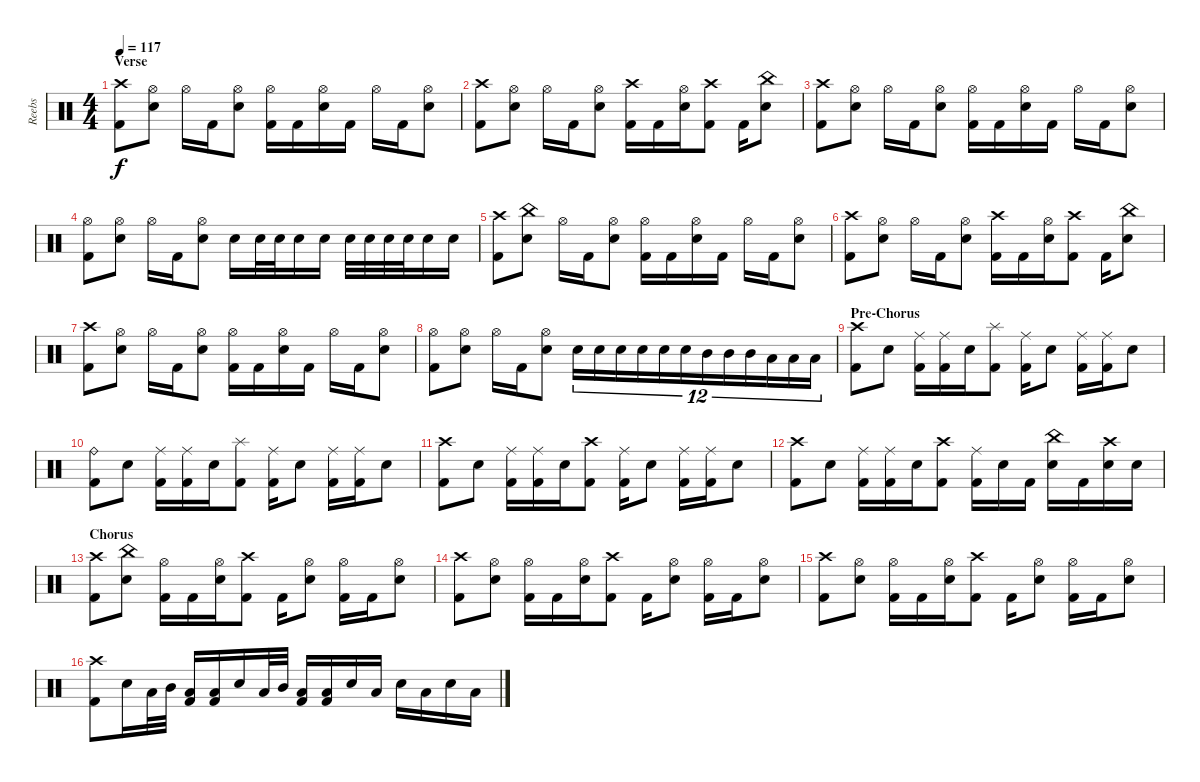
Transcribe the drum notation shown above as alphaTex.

\track ("Reebs" "Reebs") {instrument percussion}
\staff {score}
\articulation defaults
\ts (4 4)
\section ("" "Verse")
\tempo 117
\clef neutral
\ks c
("Crash high (hit)" "Kick (hit) 2").8{dy f} ("Hi-Hat (open)" "Electric Snare (hit)").8 "Hi-Hat (open)".16 "Kick (hit) 2".16 ("Hi-Hat (open)" "Electric Snare (hit)").8 ("Hi-Hat (open)" "Kick (hit) 2").16 "Kick (hit) 2".16 ("Hi-Hat (open)" "Electric Snare (hit)").16 "Kick (hit) 2".16 "Hi-Hat (open)".16 "Kick (hit) 2".16 ("Hi-Hat (open)" "Electric Snare (hit)").8 |
("Crash high (hit)" "Kick (hit) 2").8 ("Hi-Hat (open)" "Electric Snare (hit)").8 "Hi-Hat (open)".16 "Kick (hit) 2".16 ("Hi-Hat (open)" "Electric Snare (hit)").8 ("Crash high (hit)" "Kick (hit) 2").16 "Kick (hit) 2".16 ("Hi-Hat (open)" "Electric Snare (hit)").16 ("Crash high (hit)" "Kick (hit) 2").8 "Kick (hit) 2".16 ("China (hit)" "Electric Snare (hit)").8 |
("Crash high (hit)" "Kick (hit) 2").8 ("Hi-Hat (open)" "Electric Snare (hit)").8 "Hi-Hat (open)".16 "Kick (hit) 2".16 ("Hi-Hat (open)" "Electric Snare (hit)").8 ("Hi-Hat (open)" "Kick (hit) 2").16 "Kick (hit) 2".16 ("Hi-Hat (open)" "Electric Snare (hit)").16 "Kick (hit) 2".16 "Hi-Hat (open)".16 "Kick (hit) 2".16 ("Hi-Hat (open)" "Electric Snare (hit)").8 |
("Hi-Hat (open)" "Kick (hit) 2").8 ("Hi-Hat (open)" "Electric Snare (hit)").8 "Hi-Hat (open)".16 "Kick (hit) 2".16 ("Hi-Hat (open)" "Electric Snare (hit)").8 "Electric Snare (hit)".16 "Electric Snare (hit)".32 "Electric Snare (hit)".32 "Electric Snare (hit)".16 "Electric Snare (hit)".16 "Electric Snare (hit)".32 "Electric Snare (hit)".32 "Electric Snare (hit)".32 "Electric Snare (hit)".32 "Electric Snare (hit)".16 "Electric Snare (hit)".16 |
("Crash high (hit)" "Kick (hit) 2").8 ("China (hit)" "Electric Snare (hit)").8 "Hi-Hat (open)".16 "Kick (hit) 2".16 ("Hi-Hat (open)" "Electric Snare (hit)").8 ("Hi-Hat (open)" "Kick (hit) 2").16 "Kick (hit) 2".16 ("Hi-Hat (open)" "Electric Snare (hit)").16 "Kick (hit) 2".16 "Hi-Hat (open)".16 "Kick (hit) 2".16 ("Hi-Hat (open)" "Electric Snare (hit)").8 |
("Crash high (hit)" "Kick (hit) 2").8 ("Hi-Hat (open)" "Electric Snare (hit)").8 "Hi-Hat (open)".16 "Kick (hit) 2".16 ("Hi-Hat (open)" "Electric Snare (hit)").8 ("Crash high (hit)" "Kick (hit) 2").16 "Kick (hit) 2".16 ("Hi-Hat (open)" "Electric Snare (hit)").16 ("Crash high (hit)" "Kick (hit) 2").8 "Kick (hit) 2".16 ("China (hit)" "Electric Snare (hit)").8 |
("Crash high (hit)" "Kick (hit) 2").8 ("Hi-Hat (open)" "Electric Snare (hit)").8 "Hi-Hat (open)".16 "Kick (hit) 2".16 ("Hi-Hat (open)" "Electric Snare (hit)").8 ("Hi-Hat (open)" "Kick (hit) 2").16 "Kick (hit) 2".16 ("Hi-Hat (open)" "Electric Snare (hit)").16 "Kick (hit) 2".16 "Hi-Hat (open)".16 "Kick (hit) 2".16 ("Hi-Hat (open)" "Electric Snare (hit)").8 |
("Hi-Hat (open)" "Kick (hit) 2").8 ("Hi-Hat (open)" "Electric Snare (hit)").8 "Hi-Hat (open)".16 "Kick (hit) 2".16 ("Hi-Hat (open)" "Electric Snare (hit)").8 "Electric Snare (hit)".16{tu (12 8)} "Electric Snare (hit)".16{tu (12 8)} "Electric Snare (hit)".16{tu (12 8)} "Electric Snare (hit)".16{tu (12 8)} "Electric Snare (hit)".16{tu (12 8)} "Electric Snare (hit)".16{tu (12 8)} "Mid Tom (hit)".16{tu (12 8)} "Mid Tom (hit)".16{tu (12 8)} "Mid Tom (hit)".16{tu (12 8)} "Low Tom (hit)".16{tu (12 8)} "Low Tom (hit)".16{tu (12 8)} "Low Tom (hit)".16{tu (12 8)} |
\section ("" "Pre-Chorus")
("Crash high (hit)" "Kick (hit) 2").8 "Electric Snare (hit)".8 ("Ride (middle)" "Kick (hit) 2").16 ("Ride (middle)" "Kick (hit) 2").16 "Electric Snare (hit)".16 ("Splash (hit)" "Kick (hit) 2").8 ("Ride (middle)" "Kick (hit) 2").16 "Electric Snare (hit)".8 ("Ride (middle)" "Kick (hit) 2").16 ("Ride (middle)" "Kick (hit) 2").16 "Electric Snare (hit)".8 |
("Ride (bell)" "Kick (hit) 2").8 "Electric Snare (hit)".8 ("Ride (middle)" "Kick (hit) 2").16 ("Ride (middle)" "Kick (hit) 2").16 "Electric Snare (hit)".16 ("Splash (hit)" "Kick (hit) 2").8 ("Ride (middle)" "Kick (hit) 2").16 "Electric Snare (hit)".8 ("Ride (middle)" "Kick (hit) 2").16 ("Ride (middle)" "Kick (hit) 2").16 "Electric Snare (hit)".8 |
("Crash high (hit)" "Kick (hit) 2").8 "Electric Snare (hit)".8 ("Ride (middle)" "Kick (hit) 2").16 ("Ride (middle)" "Kick (hit) 2").16 "Electric Snare (hit)".16 ("Crash high (hit)" "Kick (hit) 2").8 ("Ride (middle)" "Kick (hit) 2").16 "Electric Snare (hit)".8 ("Ride (middle)" "Kick (hit) 2").16 ("Ride (middle)" "Kick (hit) 2").16 "Electric Snare (hit)".8 |
("Crash high (hit)" "Kick (hit) 2").8 "Electric Snare (hit)".8 ("Ride (middle)" "Kick (hit) 2").16 ("Ride (middle)" "Kick (hit) 2").16 "Electric Snare (hit)".16 ("Crash high (hit)" "Kick (hit) 2").8 ("Ride (middle)" "Kick (hit) 2").16 "Electric Snare (hit)".16 "Kick (hit) 2".16 ("China (hit)" "Electric Snare (hit)").16 "Kick (hit) 2".16 ("Crash high (hit)" "Electric Snare (hit)").16 "Electric Snare (hit)".16 |
\section ("" "Chorus")
("Crash high (hit)" "Kick (hit) 2").8 ("China (hit)" "Electric Snare (hit)").8 ("Hi-Hat (open)" "Kick (hit) 2").16 "Kick (hit) 2".16 ("Hi-Hat (open)" "Electric Snare (hit)").16 ("Crash high (hit)" "Kick (hit) 2").8 "Kick (hit) 2".16 ("Hi-Hat (open)" "Electric Snare (hit)").8 ("Hi-Hat (open)" "Kick (hit) 2").16 "Kick (hit) 2".16 ("Hi-Hat (open)" "Electric Snare (hit)").8 |
("Crash high (hit)" "Kick (hit) 2").8 ("Hi-Hat (open)" "Electric Snare (hit)").8 ("Hi-Hat (open)" "Kick (hit) 2").16 "Kick (hit) 2".16 ("Hi-Hat (open)" "Electric Snare (hit)").16 ("Crash high (hit)" "Kick (hit) 2").8 "Kick (hit) 2".16 ("Hi-Hat (open)" "Electric Snare (hit)").8 ("Hi-Hat (open)" "Kick (hit) 2").16 "Kick (hit) 2".16 ("Hi-Hat (open)" "Electric Snare (hit)").8 |
("Crash high (hit)" "Kick (hit) 2").8 ("Hi-Hat (open)" "Electric Snare (hit)").8 ("Hi-Hat (open)" "Kick (hit) 2").16 "Kick (hit) 2".16 ("Hi-Hat (open)" "Electric Snare (hit)").16 ("Crash high (hit)" "Kick (hit) 2").8 "Kick (hit) 2".16 ("Hi-Hat (open)" "Electric Snare (hit)").8 ("Hi-Hat (open)" "Kick (hit) 2").16 "Kick (hit) 2".16 ("Hi-Hat (open)" "Electric Snare (hit)").8 |
("Crash high (hit)" "Kick (hit) 2").8 "Electric Snare (hit)".16 "Low Tom (hit)".32 "Mid Tom (hit)".32 ("Low Tom (hit)" "Kick (hit) 2").16 ("Low Tom (hit)" "Kick (hit) 2").16 "Electric Snare (hit)".16 "Low Tom (hit)".32 "Mid Tom (hit)".32 ("Low Tom (hit)" "Kick (hit) 2").16 ("Low Tom (hit)" "Kick (hit) 2").16 "Electric Snare (hit)".16 "Low Tom (hit)".16 "Electric Snare (hit)".16 "Low Tom (hit)".16 "Electric Snare (hit)".16 "Low Tom (hit)".16
